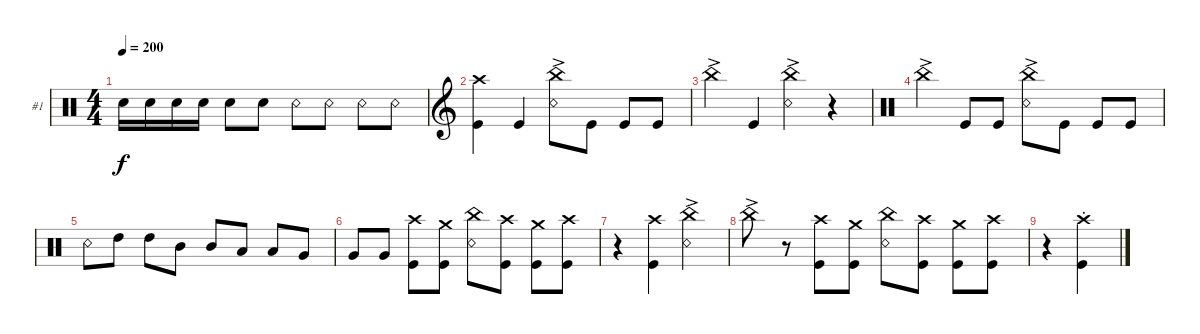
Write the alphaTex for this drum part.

\bracketExtendMode groupsimilarinstruments
\firstSystemTrackNameOrientation horizontal
\otherSystemsTrackNameOrientation horizontal
\track ("Joey Jordison" "#1") {instrument percussion}
\staff {score}
\articulation defaults
\ts (4 4)
\tempo 200
\clef neutral
\ks c "Snare (hit) 2".16{dy f} "Snare (hit) 2".16 "Snare (hit) 2".16 "Snare (hit) 2".16 "Snare (hit) 2".8 "Snare (hit) 2".8 "Snare (rim shot)".8 "Snare (rim shot)".8 "Snare (rim shot)".8 "Snare (rim shot)".8
|
\clef g2
("Kick (hit)" "Crash high (hit)").4 "Kick (hit)".4 ("Snare (rim shot)" "China (hit)"{ac}).8 "Kick (hit)".8 "Kick (hit)".8 "Kick (hit)".8 |
"China (hit)"{ac}.4 "Kick (hit)".4 ("Snare (rim shot)" "China (hit)"{ac}).4 r.4 |
\clef neutral "China (hit)"{ac}.4 "Kick (hit)".8 "Kick (hit)".8
("Snare (rim shot)" "China (hit)"{ac}).8 "Kick (hit)".8 "Kick (hit)".8 "Kick (hit)".8 |
"Snare (rim shot)".8 "High Tom (hit)".8 "High Tom (hit)".8 "Mid Tom (hit)".8 "Mid Tom (hit)".8 "Low Tom (hit)".8 "Low Tom (hit)".8 "Very Low Tom (hit)".8 |
"Very Low Tom (hit)".8 "Very Low Tom (hit)".8 ("Kick (hit)" "Crash high (hit)").8 ("Kick (hit)" "Crash medium (hit)").8 ("Snare (rim shot)" "China (hit)").8 ("Kick (hit)" "Crash high (hit)").8 ("Kick (hit)" "Crash medium (hit)").8 ("Kick (hit)" "Crash high (hit)").8 |
r.4 ("Kick (hit)" "Crash high (hit)").4 ("Snare (rim shot)" "China (hit)"{ac}).4 |
"China (hit)"{ac}.8 r.8 ("Kick (hit)" "Crash high (hit)").8 ("Kick (hit)" "Crash medium (hit)").8 ("Snare (rim shot)" "China (hit)").8 ("Kick (hit)" "Crash high (hit)").8 ("Kick (hit)" "Crash medium (hit)").8 ("Kick (hit)" "Crash high (hit)").8 |
r.4 ("Kick (hit)" "Crash high (hit)"{st}).4
